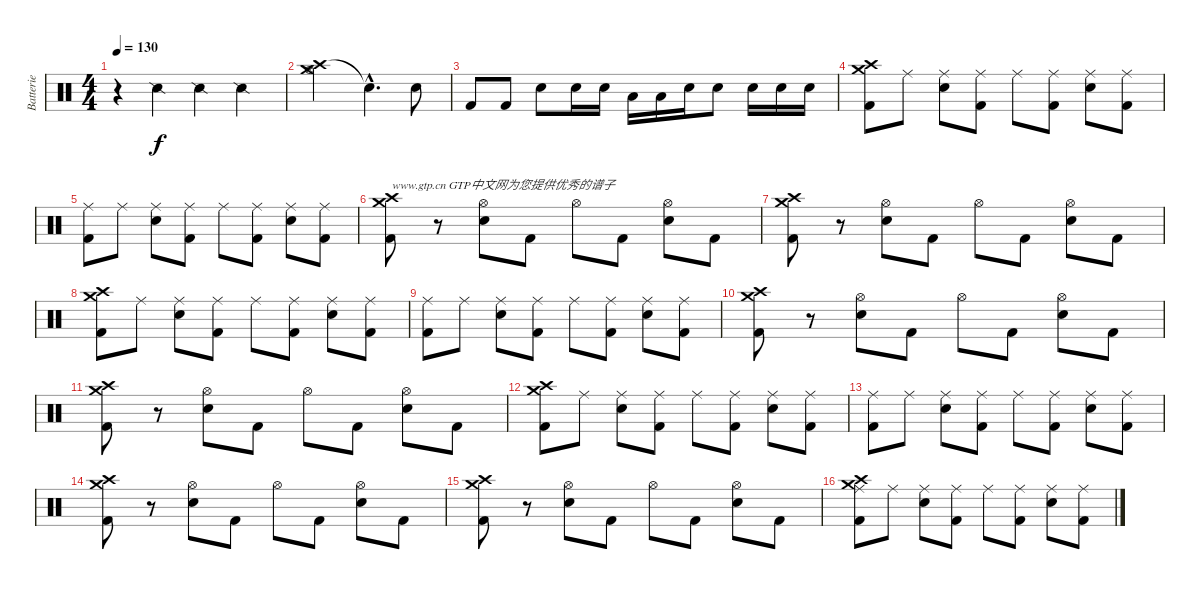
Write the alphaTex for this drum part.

\track ("Batterie" "Batterie") {instrument percussion}
\staff {score}
\articulation defaults
\ts (4 4)
\tempo 130
\clef neutral
\ks c
r.4{dy f} "Snare (side stick) 2".4 "Snare (side stick) 2".4 "Snare (side stick) 2".4 |
("Crash high (hit)" "Crash medium (hit)" "Hi-Hat (open)").2 "Snare (hit)"{hac t}.4{d} "Snare (hit) 2".8 |
"Kick (hit) 2".8 "Kick (hit) 2".8 "Snare (hit) 2".8 "Snare (hit) 2".16 "Snare (hit) 2".16 "Low Tom (hit)".16 "Low Tom (hit)".16 "Snare (hit) 2".16 "Snare (hit) 2".8 "Snare (hit) 2".16 "Snare (hit) 2".16 "Snare (hit) 2".16 |
("Crash high (hit)" "Crash medium (hit)" "Kick (hit) 2").8 "Ride (middle)".8 ("Ride (middle)" "Snare (hit) 2").8 ("Ride (middle)" "Kick (hit) 2").8 "Ride (middle)".8 ("Ride (middle)" "Kick (hit) 2").8 ("Ride (middle)" "Snare (hit) 2").8 ("Ride (middle)" "Kick (hit) 2").8 |
("Ride (middle)" "Kick (hit) 2").8 "Ride (middle)".8 ("Ride (middle)" "Snare (hit) 2").8 ("Ride (middle)" "Kick (hit) 2").8 "Ride (middle)".8 ("Ride (middle)" "Kick (hit) 2").8 ("Ride (middle)" "Snare (hit) 2").8 ("Ride (middle)" "Kick (hit) 2").8 |
("Crash high (hit)" "Crash medium (hit)" "Kick (hit) 2").8{txt "www.gtp.cn GTP中文网为您提供优秀的谱子"} r.8 ("Hi-Hat (open)" "Snare (hit) 2").8 "Kick (hit) 2".8 "Hi-Hat (open)".8 "Kick (hit) 2".8 ("Hi-Hat (open)" "Snare (hit) 2").8 "Kick (hit) 2".8 |
("Crash high (hit)" "Crash medium (hit)" "Kick (hit) 2").8 r.8 ("Hi-Hat (open)" "Snare (hit) 2").8 "Kick (hit) 2".8 "Hi-Hat (open)".8 "Kick (hit) 2".8 ("Hi-Hat (open)" "Snare (hit) 2").8 "Kick (hit) 2".8 |
("Crash high (hit)" "Crash medium (hit)" "Kick (hit) 2").8 "Ride (middle)".8 ("Ride (middle)" "Snare (hit) 2").8 ("Ride (middle)" "Kick (hit) 2").8 "Ride (middle)".8 ("Ride (middle)" "Kick (hit) 2").8 ("Ride (middle)" "Snare (hit) 2").8 ("Ride (middle)" "Kick (hit) 2").8 |
("Ride (middle)" "Kick (hit) 2").8 "Ride (middle)".8 ("Ride (middle)" "Snare (hit) 2").8 ("Ride (middle)" "Kick (hit) 2").8 "Ride (middle)".8 ("Ride (middle)" "Kick (hit) 2").8 ("Ride (middle)" "Snare (hit) 2").8 ("Ride (middle)" "Kick (hit) 2").8 |
("Crash high (hit)" "Crash medium (hit)" "Kick (hit) 2").8 r.8 ("Hi-Hat (open)" "Snare (hit) 2").8 "Kick (hit) 2".8 "Hi-Hat (open)".8 "Kick (hit) 2".8 ("Hi-Hat (open)" "Snare (hit) 2").8 "Kick (hit) 2".8 |
("Crash high (hit)" "Crash medium (hit)" "Kick (hit) 2").8 r.8 ("Hi-Hat (open)" "Snare (hit) 2").8 "Kick (hit) 2".8 "Hi-Hat (open)".8 "Kick (hit) 2".8 ("Hi-Hat (open)" "Snare (hit) 2").8 "Kick (hit) 2".8 |
("Crash high (hit)" "Crash medium (hit)" "Kick (hit) 2").8 "Ride (middle)".8 ("Ride (middle)" "Snare (hit) 2").8 ("Ride (middle)" "Kick (hit) 2").8 "Ride (middle)".8 ("Ride (middle)" "Kick (hit) 2").8 ("Ride (middle)" "Snare (hit) 2").8 ("Ride (middle)" "Kick (hit) 2").8 |
("Ride (middle)" "Kick (hit) 2").8 "Ride (middle)".8 ("Ride (middle)" "Snare (hit) 2").8 ("Ride (middle)" "Kick (hit) 2").8 "Ride (middle)".8 ("Ride (middle)" "Kick (hit) 2").8 ("Ride (middle)" "Snare (hit) 2").8 ("Ride (middle)" "Kick (hit) 2").8 |
("Crash high (hit)" "Crash medium (hit)" "Kick (hit) 2").8 r.8 ("Hi-Hat (open)" "Snare (hit) 2").8 "Kick (hit) 2".8 "Hi-Hat (open)".8 "Kick (hit) 2".8 ("Hi-Hat (open)" "Snare (hit) 2").8 "Kick (hit) 2".8 |
("Crash high (hit)" "Crash medium (hit)" "Kick (hit) 2").8 r.8 ("Hi-Hat (open)" "Snare (hit) 2").8 "Kick (hit) 2".8 "Hi-Hat (open)".8 "Kick (hit) 2".8 ("Hi-Hat (open)" "Snare (hit) 2").8 "Kick (hit) 2".8 |
("Crash medium (hit)" "Crash high (hit)" "Ride (middle)" "Kick (hit) 2").8 "Ride (middle)".8 ("Ride (middle)" "Snare (hit) 2").8 ("Ride (middle)" "Kick (hit) 2").8 "Ride (middle)".8 ("Ride (middle)" "Kick (hit) 2").8 ("Ride (middle)" "Snare (hit) 2").8 ("Ride (middle)" "Kick (hit) 2").8
